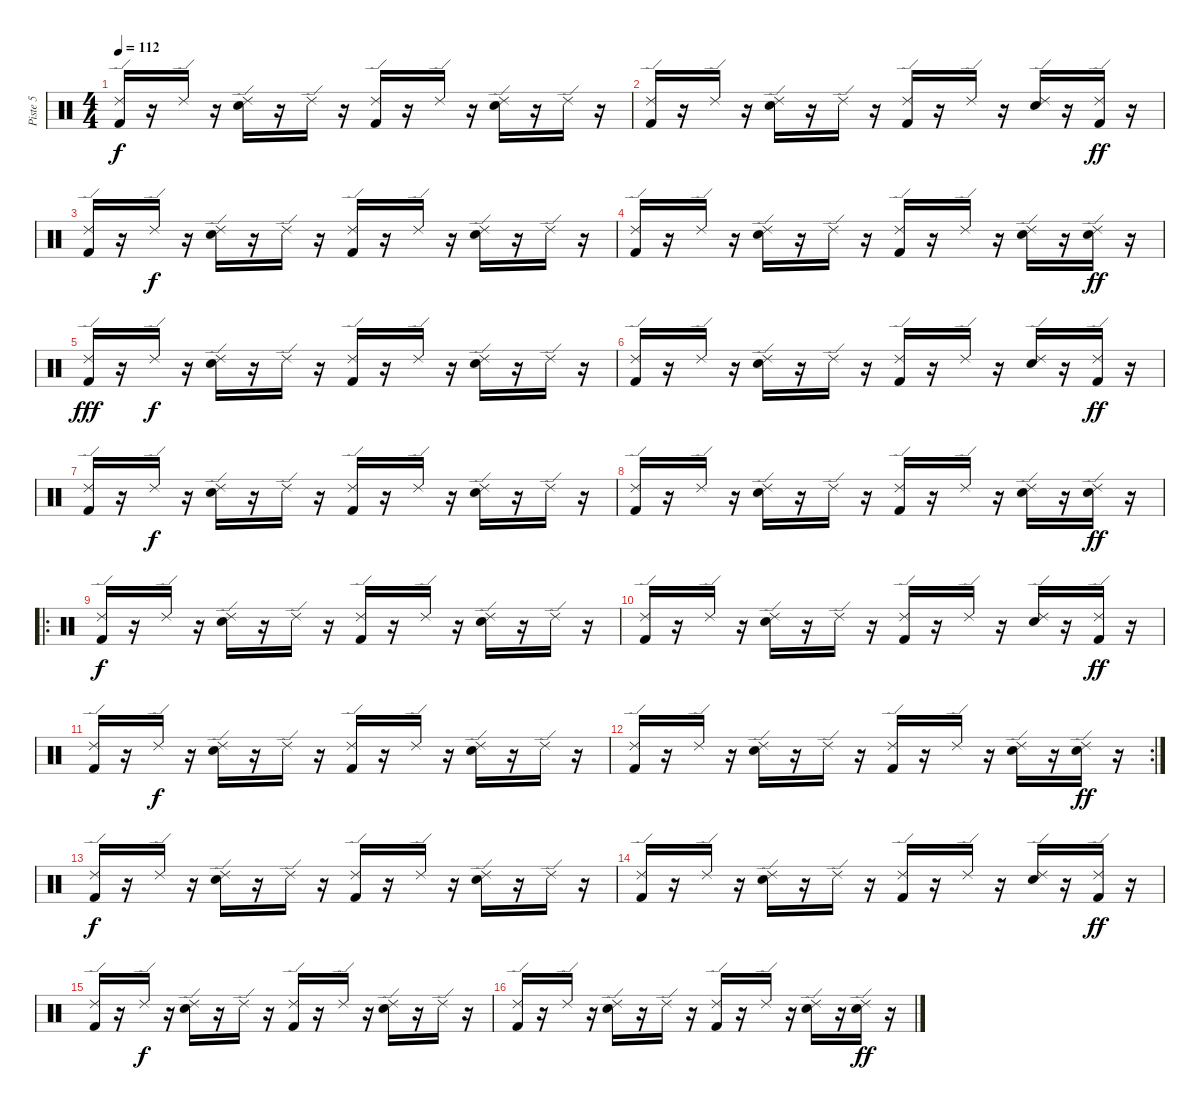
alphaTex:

\track ("Piste 5" "Piste 5") {instrument percussion}
\staff {score}
\articulation defaults
\ts (4 4)
\tempo 112
\clef neutral
\ks c
("Kick (hit) 2" "Ride (edge) 2").16{dy f} r.16 "Ride (edge) 2".16 r.16 ("Electric Snare (hit)" "Ride (edge) 2").16 r.16 "Ride (edge) 2".16 r.16 ("Kick (hit) 2" "Ride (edge) 2").16 r.16 "Ride (edge) 2".16 r.16 ("Electric Snare (hit)" "Ride (edge) 2").16 r.16 "Ride (edge) 2".16 r.16 |
("Kick (hit) 2" "Ride (edge) 2").16 r.16 "Ride (edge) 2".16 r.16 ("Electric Snare (hit)" "Ride (edge) 2").16 r.16 "Ride (edge) 2".16 r.16 ("Kick (hit) 2" "Ride (edge) 2").16 r.16 "Ride (edge) 2".16 r.16 ("Electric Snare (hit)" "Ride (edge) 2").16 r.16 ("Kick (hit) 2" "Ride (edge) 2").16{dy ff} r.16 |
("Kick (hit) 2" "Ride (edge) 2").16 r.16 "Ride (edge) 2".16{dy f} r.16 ("Electric Snare (hit)" "Ride (edge) 2").16 r.16 "Ride (edge) 2".16 r.16 ("Kick (hit) 2" "Ride (edge) 2").16 r.16 "Ride (edge) 2".16 r.16 ("Electric Snare (hit)" "Ride (edge) 2").16 r.16 "Ride (edge) 2".16 r.16 |
("Kick (hit) 2" "Ride (edge) 2").16 r.16 "Ride (edge) 2".16 r.16 ("Electric Snare (hit)" "Ride (edge) 2").16 r.16 "Ride (edge) 2".16 r.16 ("Kick (hit) 2" "Ride (edge) 2").16 r.16 "Ride (edge) 2".16 r.16 ("Electric Snare (hit)" "Ride (edge) 2").16 r.16 ("Electric Snare (hit)" "Ride (edge) 2").16{dy ff} r.16 |
("Kick (hit) 2" "Ride (edge) 2").16{dy fff} r.16 "Ride (edge) 2".16{dy f} r.16 ("Electric Snare (hit)" "Ride (edge) 2").16 r.16 "Ride (edge) 2".16 r.16 ("Kick (hit) 2" "Ride (edge) 2").16 r.16 "Ride (edge) 2".16 r.16 ("Electric Snare (hit)" "Ride (edge) 2").16 r.16 "Ride (edge) 2".16 r.16 |
("Kick (hit) 2" "Ride (edge) 2").16 r.16 "Ride (edge) 2".16 r.16 ("Electric Snare (hit)" "Ride (edge) 2").16 r.16 "Ride (edge) 2".16 r.16 ("Kick (hit) 2" "Ride (edge) 2").16 r.16 "Ride (edge) 2".16 r.16 ("Electric Snare (hit)" "Ride (edge) 2").16 r.16 ("Kick (hit) 2" "Ride (edge) 2").16{dy ff} r.16 |
("Kick (hit) 2" "Ride (edge) 2").16 r.16 "Ride (edge) 2".16{dy f} r.16 ("Electric Snare (hit)" "Ride (edge) 2").16 r.16 "Ride (edge) 2".16 r.16 ("Kick (hit) 2" "Ride (edge) 2").16 r.16 "Ride (edge) 2".16 r.16 ("Electric Snare (hit)" "Ride (edge) 2").16 r.16 "Ride (edge) 2".16 r.16 |
("Kick (hit) 2" "Ride (edge) 2").16 r.16 "Ride (edge) 2".16 r.16 ("Electric Snare (hit)" "Ride (edge) 2").16 r.16 "Ride (edge) 2".16 r.16 ("Kick (hit) 2" "Ride (edge) 2").16 r.16 "Ride (edge) 2".16 r.16 ("Electric Snare (hit)" "Ride (edge) 2").16 r.16 ("Electric Snare (hit)" "Ride (edge) 2").16{dy ff} r.16 |
\ro
("Kick (hit) 2" "Ride (edge) 2").16{dy f} r.16 "Ride (edge) 2".16 r.16 ("Electric Snare (hit)" "Ride (edge) 2").16 r.16 "Ride (edge) 2".16 r.16 ("Kick (hit) 2" "Ride (edge) 2").16 r.16 "Ride (edge) 2".16 r.16 ("Electric Snare (hit)" "Ride (edge) 2").16 r.16 "Ride (edge) 2".16 r.16 |
("Kick (hit) 2" "Ride (edge) 2").16 r.16 "Ride (edge) 2".16 r.16 ("Electric Snare (hit)" "Ride (edge) 2").16 r.16 "Ride (edge) 2".16 r.16 ("Kick (hit) 2" "Ride (edge) 2").16 r.16 "Ride (edge) 2".16 r.16 ("Electric Snare (hit)" "Ride (edge) 2").16 r.16 ("Kick (hit) 2" "Ride (edge) 2").16{dy ff} r.16 |
("Kick (hit) 2" "Ride (edge) 2").16 r.16 "Ride (edge) 2".16{dy f} r.16 ("Electric Snare (hit)" "Ride (edge) 2").16 r.16 "Ride (edge) 2".16 r.16 ("Kick (hit) 2" "Ride (edge) 2").16 r.16 "Ride (edge) 2".16 r.16 ("Electric Snare (hit)" "Ride (edge) 2").16 r.16 "Ride (edge) 2".16 r.16 |
\rc 2
("Kick (hit) 2" "Ride (edge) 2").16 r.16 "Ride (edge) 2".16 r.16 ("Electric Snare (hit)" "Ride (edge) 2").16 r.16 "Ride (edge) 2".16 r.16 ("Kick (hit) 2" "Ride (edge) 2").16 r.16 "Ride (edge) 2".16 r.16 ("Electric Snare (hit)" "Ride (edge) 2").16 r.16 ("Electric Snare (hit)" "Ride (edge) 2").16{dy ff} r.16 |
("Kick (hit) 2" "Ride (edge) 2").16{dy f} r.16 "Ride (edge) 2".16 r.16 ("Electric Snare (hit)" "Ride (edge) 2").16 r.16 "Ride (edge) 2".16 r.16 ("Kick (hit) 2" "Ride (edge) 2").16 r.16 "Ride (edge) 2".16 r.16 ("Electric Snare (hit)" "Ride (edge) 2").16 r.16 "Ride (edge) 2".16 r.16 |
("Kick (hit) 2" "Ride (edge) 2").16 r.16 "Ride (edge) 2".16 r.16 ("Electric Snare (hit)" "Ride (edge) 2").16 r.16 "Ride (edge) 2".16 r.16 ("Kick (hit) 2" "Ride (edge) 2").16 r.16 "Ride (edge) 2".16 r.16 ("Electric Snare (hit)" "Ride (edge) 2").16 r.16 ("Kick (hit) 2" "Ride (edge) 2").16{dy ff} r.16 |
("Kick (hit) 2" "Ride (edge) 2").16 r.16 "Ride (edge) 2".16{dy f} r.16 ("Electric Snare (hit)" "Ride (edge) 2").16 r.16 "Ride (edge) 2".16 r.16 ("Kick (hit) 2" "Ride (edge) 2").16 r.16 "Ride (edge) 2".16 r.16 ("Electric Snare (hit)" "Ride (edge) 2").16 r.16 "Ride (edge) 2".16 r.16 |
("Kick (hit) 2" "Ride (edge) 2").16 r.16 "Ride (edge) 2".16 r.16 ("Electric Snare (hit)" "Ride (edge) 2").16 r.16 "Ride (edge) 2".16 r.16 ("Kick (hit) 2" "Ride (edge) 2").16 r.16 "Ride (edge) 2".16 r.16 ("Electric Snare (hit)" "Ride (edge) 2").16 r.16 ("Electric Snare (hit)" "Ride (edge) 2").16{dy ff} r.16
